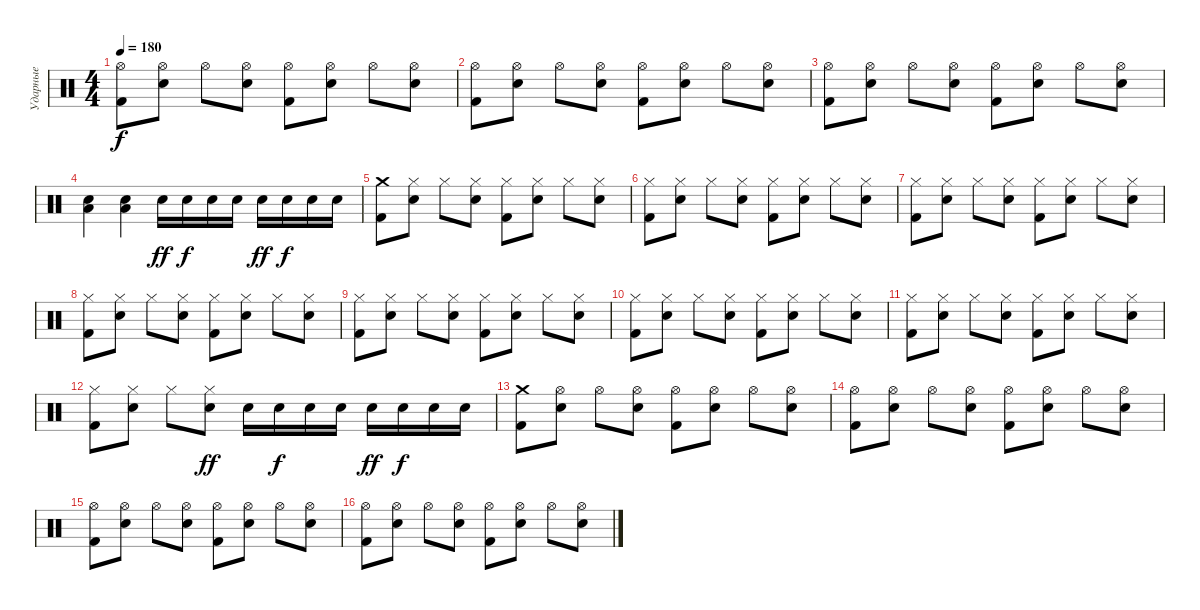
\track ("Ударные" "Ударные") {instrument percussion}
\staff {score}
\articulation defaults
\ts (4 4)
\tempo 180
\clef neutral
\ks c
("Hi-Hat (open)" "Kick (hit) 2").8{dy f} ("Hi-Hat (open)" "Snare (hit) 2").8 "Hi-Hat (open)".8 ("Hi-Hat (open)" "Snare (hit) 2").8 ("Hi-Hat (open)" "Kick (hit) 2").8 ("Hi-Hat (open)" "Snare (hit) 2").8 "Hi-Hat (open)".8 ("Hi-Hat (open)" "Snare (hit) 2").8 |
("Hi-Hat (open)" "Kick (hit) 2").8 ("Hi-Hat (open)" "Snare (hit) 2").8 "Hi-Hat (open)".8 ("Hi-Hat (open)" "Snare (hit) 2").8 ("Hi-Hat (open)" "Kick (hit) 2").8 ("Hi-Hat (open)" "Snare (hit) 2").8 "Hi-Hat (open)".8 ("Hi-Hat (open)" "Snare (hit) 2").8 |
("Hi-Hat (open)" "Kick (hit) 2").8 ("Hi-Hat (open)" "Snare (hit) 2").8 "Hi-Hat (open)".8 ("Hi-Hat (open)" "Snare (hit) 2").8 ("Hi-Hat (open)" "Kick (hit) 2").8 ("Hi-Hat (open)" "Snare (hit) 2").8 "Hi-Hat (open)".8 ("Hi-Hat (open)" "Snare (hit) 2").8 |
("Low Floor Tom (hit)" "Snare (hit) 2").4 ("Low Floor Tom (hit)" "Snare (hit) 2").4 "Snare (hit) 2".16{dy ff} "Snare (hit) 2".16{dy f} "Snare (hit) 2".16 "Snare (hit) 2".16 "Snare (hit) 2".16{dy ff} "Snare (hit) 2".16{dy f} "Snare (hit) 2".16 "Snare (hit) 2".16 |
("Crash medium (hit)" "Kick (hit) 2").8 ("Hi-Hat (closed)" "Snare (hit) 2").8 "Hi-Hat (closed)".8 ("Hi-Hat (closed)" "Snare (hit) 2").8 ("Hi-Hat (closed)" "Kick (hit) 2").8 ("Hi-Hat (closed)" "Snare (hit) 2").8 "Hi-Hat (closed)".8 ("Hi-Hat (closed)" "Snare (hit) 2").8 |
("Hi-Hat (closed)" "Kick (hit) 2").8 ("Hi-Hat (closed)" "Snare (hit) 2").8 "Hi-Hat (closed)".8 ("Hi-Hat (closed)" "Snare (hit) 2").8 ("Hi-Hat (closed)" "Kick (hit) 2").8 ("Hi-Hat (closed)" "Snare (hit) 2").8 "Hi-Hat (closed)".8 ("Hi-Hat (closed)" "Snare (hit) 2").8 |
("Hi-Hat (closed)" "Kick (hit) 2").8 ("Hi-Hat (closed)" "Snare (hit) 2").8 "Hi-Hat (closed)".8 ("Hi-Hat (closed)" "Snare (hit) 2").8 ("Hi-Hat (closed)" "Kick (hit) 2").8 ("Hi-Hat (closed)" "Snare (hit) 2").8 "Hi-Hat (closed)".8 ("Hi-Hat (closed)" "Snare (hit) 2").8 |
("Hi-Hat (closed)" "Kick (hit) 2").8 ("Hi-Hat (closed)" "Snare (hit) 2").8 "Hi-Hat (closed)".8 ("Hi-Hat (closed)" "Snare (hit) 2").8 ("Hi-Hat (closed)" "Kick (hit) 2").8 ("Hi-Hat (closed)" "Snare (hit) 2").8 "Hi-Hat (closed)".8 ("Hi-Hat (closed)" "Snare (hit) 2").8 |
("Hi-Hat (closed)" "Kick (hit) 2").8 ("Hi-Hat (closed)" "Snare (hit) 2").8 "Hi-Hat (closed)".8 ("Hi-Hat (closed)" "Snare (hit) 2").8 ("Hi-Hat (closed)" "Kick (hit) 2").8 ("Hi-Hat (closed)" "Snare (hit) 2").8 "Hi-Hat (closed)".8 ("Hi-Hat (closed)" "Snare (hit) 2").8 |
("Hi-Hat (closed)" "Kick (hit) 2").8 ("Hi-Hat (closed)" "Snare (hit) 2").8 "Hi-Hat (closed)".8 ("Hi-Hat (closed)" "Snare (hit) 2").8 ("Hi-Hat (closed)" "Kick (hit) 2").8 ("Hi-Hat (closed)" "Snare (hit) 2").8 "Hi-Hat (closed)".8 ("Hi-Hat (closed)" "Snare (hit) 2").8 |
("Hi-Hat (closed)" "Kick (hit) 2").8 ("Hi-Hat (closed)" "Snare (hit) 2").8 "Hi-Hat (closed)".8 ("Hi-Hat (closed)" "Snare (hit) 2").8 ("Hi-Hat (closed)" "Kick (hit) 2").8 ("Hi-Hat (closed)" "Snare (hit) 2").8 "Hi-Hat (closed)".8 ("Hi-Hat (closed)" "Snare (hit) 2").8 |
("Hi-Hat (closed)" "Kick (hit) 2").8 ("Hi-Hat (closed)" "Snare (hit) 2").8 "Hi-Hat (closed)".8 ("Hi-Hat (closed)" "Snare (hit) 2").8{dy ff} "Snare (hit) 2".16 "Snare (hit) 2".16{dy f} "Snare (hit) 2".16 "Snare (hit) 2".16 "Snare (hit) 2".16{dy ff} "Snare (hit) 2".16{dy f} "Snare (hit) 2".16 "Snare (hit) 2".16 |
("Crash medium (hit)" "Kick (hit) 2").8 ("Hi-Hat (open)" "Snare (hit) 2").8 "Hi-Hat (open)".8 ("Hi-Hat (open)" "Snare (hit) 2").8 ("Hi-Hat (open)" "Kick (hit) 2").8 ("Hi-Hat (open)" "Snare (hit) 2").8 "Hi-Hat (open)".8 ("Hi-Hat (open)" "Snare (hit) 2").8 |
("Hi-Hat (open)" "Kick (hit) 2").8 ("Hi-Hat (open)" "Snare (hit) 2").8 "Hi-Hat (open)".8 ("Hi-Hat (open)" "Snare (hit) 2").8 ("Hi-Hat (open)" "Kick (hit) 2").8 ("Hi-Hat (open)" "Snare (hit) 2").8 "Hi-Hat (open)".8 ("Hi-Hat (open)" "Snare (hit) 2").8 |
("Hi-Hat (open)" "Kick (hit) 2").8 ("Hi-Hat (open)" "Snare (hit) 2").8 "Hi-Hat (open)".8 ("Hi-Hat (open)" "Snare (hit) 2").8 ("Hi-Hat (open)" "Kick (hit) 2").8 ("Hi-Hat (open)" "Snare (hit) 2").8 "Hi-Hat (open)".8 ("Hi-Hat (open)" "Snare (hit) 2").8 |
("Hi-Hat (open)" "Kick (hit) 2").8 ("Hi-Hat (open)" "Snare (hit) 2").8 "Hi-Hat (open)".8 ("Hi-Hat (open)" "Snare (hit) 2").8 ("Hi-Hat (open)" "Kick (hit) 2").8 ("Hi-Hat (open)" "Snare (hit) 2").8 "Hi-Hat (open)".8 ("Hi-Hat (open)" "Snare (hit) 2").8
